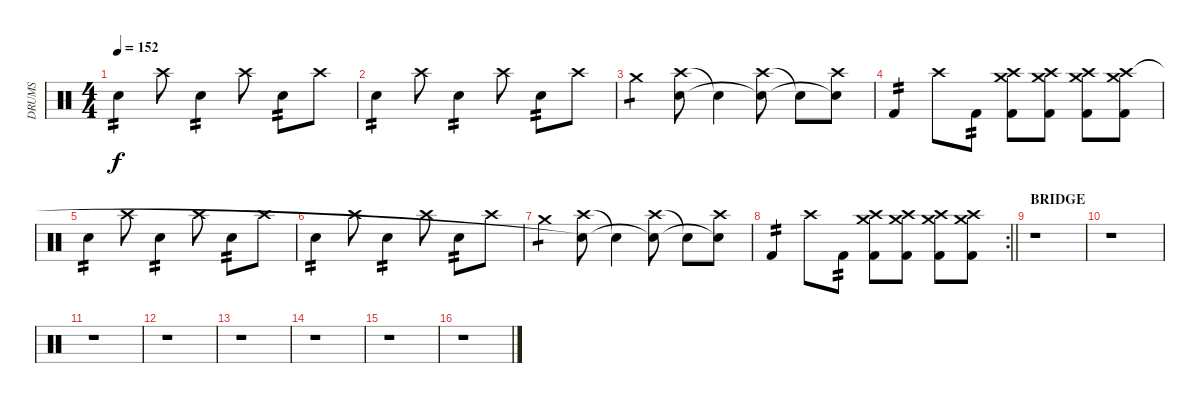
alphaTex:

\track ("DRUMS" "DRUMS") {instrument percussion}
\staff {score}
\articulation defaults
\ts (4 4)
\tempo 152
\clef neutral
\ks c "Electric Snare (hit)".4{tp 2 dy f} "Crash high (hit)".8 "Electric Snare (hit)".4{tp 2} "Crash high (hit)".8 "Electric Snare (hit)".8{tp 2} "Crash high (hit)".8
|
"Electric Snare (hit)".4{tp 2} "Crash high (hit)".8 "Electric Snare (hit)".4{tp 2} "Crash high (hit)".8 "Electric Snare (hit)".8{tp 2} "Crash high (hit)".8 |
"Crash medium (hit)".4{tp 1} ("Crash high (hit)" "Snare (hit)"{t}).8 "Electric Snare (hit)"{t}.4 ("Crash high (hit)" "Snare (hit)"{t}).8 "Electric Snare (hit)"{t}.8 ("Crash high (hit)" "Snare (hit)"{t}).8 |
"Kick (hit) 2".4{tp 2} "Crash high (hit)".8 "Kick (hit) 2".8{tp 2} ("Kick (hit) 2" "Crash high (hit)" "Crash medium (hit)").8 ("Kick (hit) 2" "Crash high (hit)" "Crash medium (hit)").8 ("Kick (hit) 2" "Crash high (hit)" "Crash medium (hit)").8 ("Kick (hit) 2" "Crash high (hit)" "Crash medium (hit)").8 |
"Electric Snare (hit)".4{tp 2} "Crash high (hit)".8 "Electric Snare (hit)".4{tp 2} "Crash high (hit)".8 "Electric Snare (hit)".8{tp 2} "Crash high (hit)".8 |
"Electric Snare (hit)".4{tp 2} "Crash high (hit)".8 "Electric Snare (hit)".4{tp 2} "Crash high (hit)".8 "Electric Snare (hit)".8{tp 2} "Crash high (hit)".8 |
"Crash medium (hit)".4{tp 1} ("Crash high (hit)" "Snare (hit)"{t}).8 "Electric Snare (hit)"{t}.4 ("Crash high (hit)" "Snare (hit)"{t}).8 "Electric Snare (hit)"{t}.8 ("Crash high (hit)" "Snare (hit)"{t}).8 |
\rc 2
\barLineRight lightlight "Kick (hit) 2".4{tp 2} "Crash high (hit)".8 "Kick (hit) 2".8{tp 2}
("Kick (hit) 2" "Crash high (hit)" "Crash medium (hit)").8 ("Kick (hit) 2" "Crash high (hit)" "Crash medium (hit)").8 ("Kick (hit) 2" "Crash high (hit)" "Crash medium (hit)").8 ("Kick (hit) 2" "Crash high (hit)" "Crash medium (hit)").8 |
\section ("" "BRIDGE")
r.1 |
r.1 |
r.1 |
r.1 |
r.1 |
r.1 |
r.1 |
r.1
